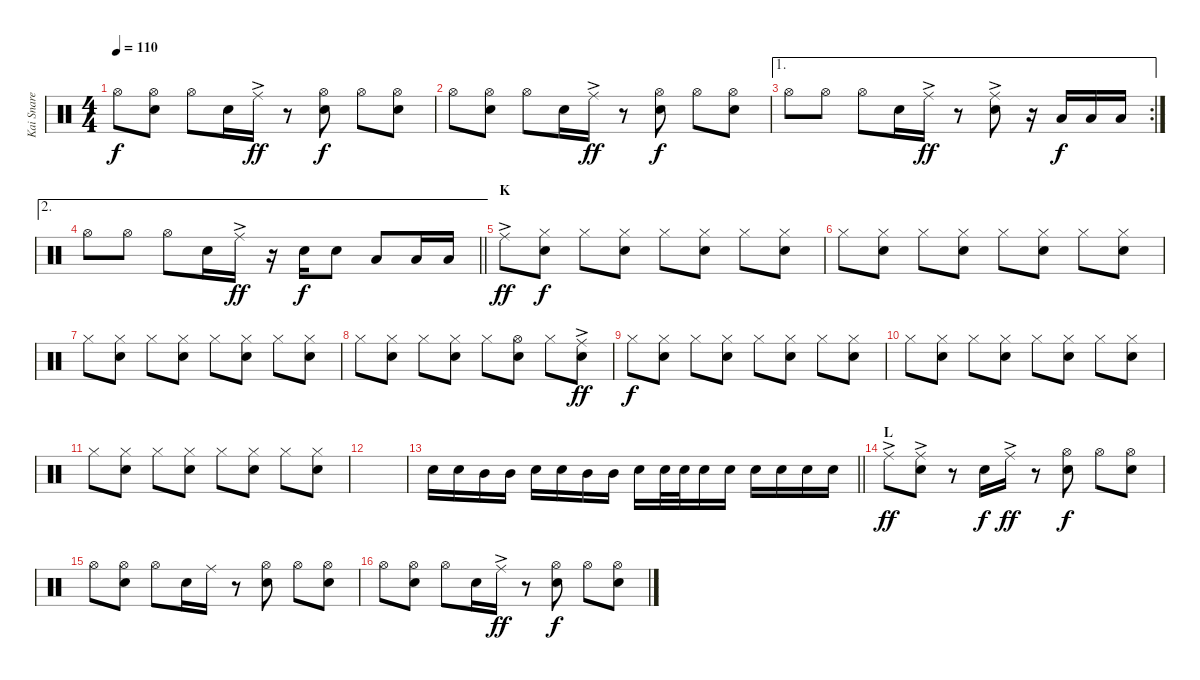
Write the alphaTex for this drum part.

\track ("Kai Snare" "Kai Snare") {instrument percussion}
\staff {score}
\articulation defaults
\ts (4 4)
\tempo 110
\clef neutral
\ks c "Hi-Hat (open)".8{dy f}
("Hi-Hat (open)" "Snare (hit) 2").8 "Hi-Hat (open)".8 "Snare (hit) 2".16 "Ride (middle)"{ac}.16{dy ff} r.8 ("Hi-Hat (open)" "Snare (hit) 2").8{dy f} "Hi-Hat (open)".8 ("Hi-Hat (open)" "Snare (hit) 2").8 |
"Hi-Hat (open)".8 ("Hi-Hat (open)" "Snare (hit) 2").8 "Hi-Hat (open)".8 "Snare (hit) 2".16 "Ride (middle)"{ac}.16{dy ff} r.8 ("Hi-Hat (open)" "Snare (hit) 2").8{dy f} "Hi-Hat (open)".8 ("Hi-Hat (open)" "Snare (hit) 2").8 |
\ae 1
\rc 2 "Hi-Hat (open)".8 "Hi-Hat (open)".8 "Hi-Hat (open)".8 "Snare (hit) 2".16 "Ride (middle)"{ac}.16{dy ff}
r.8 ("Ride (middle)"{ac} "Snare (hit) 2").8 r.16 "Low Tom (hit)".16{dy f} "Low Tom (hit)".16 "Low Tom (hit)".16 |
\ae 2
\barLineRight lightlight "Hi-Hat (open)".8 "Hi-Hat (open)".8 "Hi-Hat (open)".8 "Snare (hit) 2".16 "Ride (middle)"{ac}.16{dy ff}
r.16 "Snare (hit) 2".16{dy f} "Snare (hit) 2".8 "Low Tom (hit)".8 "Low Tom (hit)".16 "Low Tom (hit)".16 |
\section ("" "K")
"Ride (middle)"{ac}.8{dy ff} ("Hi-Hat (closed)" "Snare (hit) 2").8{dy f} "Hi-Hat (closed)".8 ("Hi-Hat (closed)" "Snare (hit) 2").8 "Hi-Hat (closed)".8 ("Hi-Hat (closed)" "Snare (hit) 2").8 "Hi-Hat (closed)".8 ("Hi-Hat (closed)" "Snare (hit) 2").8 |
"Hi-Hat (closed)".8 ("Hi-Hat (closed)" "Snare (hit) 2").8 "Hi-Hat (closed)".8 ("Hi-Hat (closed)" "Snare (hit) 2").8 "Hi-Hat (closed)".8 ("Hi-Hat (closed)" "Snare (hit) 2").8 "Hi-Hat (closed)".8 ("Hi-Hat (closed)" "Snare (hit) 2").8 |
"Hi-Hat (closed)".8 ("Hi-Hat (closed)" "Snare (hit) 2").8 "Hi-Hat (closed)".8 ("Hi-Hat (closed)" "Snare (hit) 2").8 "Hi-Hat (closed)".8 ("Hi-Hat (closed)" "Snare (hit) 2").8 "Hi-Hat (closed)".8 ("Hi-Hat (closed)" "Snare (hit) 2").8 |
"Hi-Hat (closed)".8 ("Hi-Hat (closed)" "Snare (hit) 2").8 "Hi-Hat (closed)".8 ("Hi-Hat (closed)" "Snare (hit) 2").8 "Hi-Hat (closed)".8 ("Hi-Hat (open)" "Snare (hit) 2").8 "Hi-Hat (closed)".8 ("Ride (middle)"{ac} "Snare (hit) 2").8{dy ff} |
"Hi-Hat (closed)".8{dy f} ("Hi-Hat (closed)" "Snare (hit) 2").8 "Hi-Hat (closed)".8 ("Hi-Hat (closed)" "Snare (hit) 2").8 "Hi-Hat (closed)".8 ("Hi-Hat (closed)" "Snare (hit) 2").8 "Hi-Hat (closed)".8 ("Hi-Hat (closed)" "Snare (hit) 2").8 |
"Hi-Hat (closed)".8 ("Hi-Hat (closed)" "Snare (hit) 2").8 "Hi-Hat (closed)".8 ("Hi-Hat (closed)" "Snare (hit) 2").8 "Hi-Hat (closed)".8 ("Hi-Hat (closed)" "Snare (hit) 2").8 "Hi-Hat (closed)".8 ("Hi-Hat (closed)" "Snare (hit) 2").8 |
"Hi-Hat (closed)".8 ("Hi-Hat (closed)" "Snare (hit) 2").8 "Hi-Hat (closed)".8 ("Hi-Hat (closed)" "Snare (hit) 2").8 "Hi-Hat (closed)".8 ("Hi-Hat (closed)" "Snare (hit) 2").8 "Hi-Hat (closed)".8 ("Hi-Hat (closed)" "Snare (hit) 2").8 |
|
\barLineRight lightlight "Snare (hit)".16 "Snare (hit) 2".16 "Mid Tom (hit)".16 "Mid Tom (hit)".16 "Snare (hit) 2".16 "Snare (hit) 2".16 "Mid Tom (hit)".16 "Mid Tom (hit)".16 "Snare (hit) 2".16 "Snare (hit) 2".32 "Snare (hit) 2".32 "Snare (hit) 2".16 "Snare (hit) 2".16 "Snare (hit) 2".16 "Snare (hit) 2".16 "Snare (hit) 2".16 "Snare (hit) 2".16
|
\section ("" "L")
"Ride (middle)"{ac}.8{dy ff} ("Ride (middle)"{ac} "Snare (hit) 2").8 r.8 "Snare (hit) 2".16{dy f} "Ride (middle)"{ac}.16{dy ff} r.8 ("Hi-Hat (open)" "Snare (hit) 2").8{dy f} "Hi-Hat (open)".8 ("Hi-Hat (open)" "Snare (hit) 2").8 |
"Hi-Hat (open)".8 ("Hi-Hat (open)" "Snare (hit) 2").8 "Hi-Hat (open)".8 "Snare (hit) 2".16 "Ride (middle)".16 r.8 ("Hi-Hat (open)" "Snare (hit) 2").8 "Hi-Hat (open)".8 ("Hi-Hat (open)" "Snare (hit) 2").8 |
"Hi-Hat (open)".8 ("Hi-Hat (open)" "Snare (hit) 2").8 "Hi-Hat (open)".8 "Snare (hit) 2".16 "Ride (middle)"{ac}.16{dy ff} r.8 ("Hi-Hat (open)" "Snare (hit) 2").8{dy f} "Hi-Hat (open)".8 ("Hi-Hat (open)" "Snare (hit) 2").8
